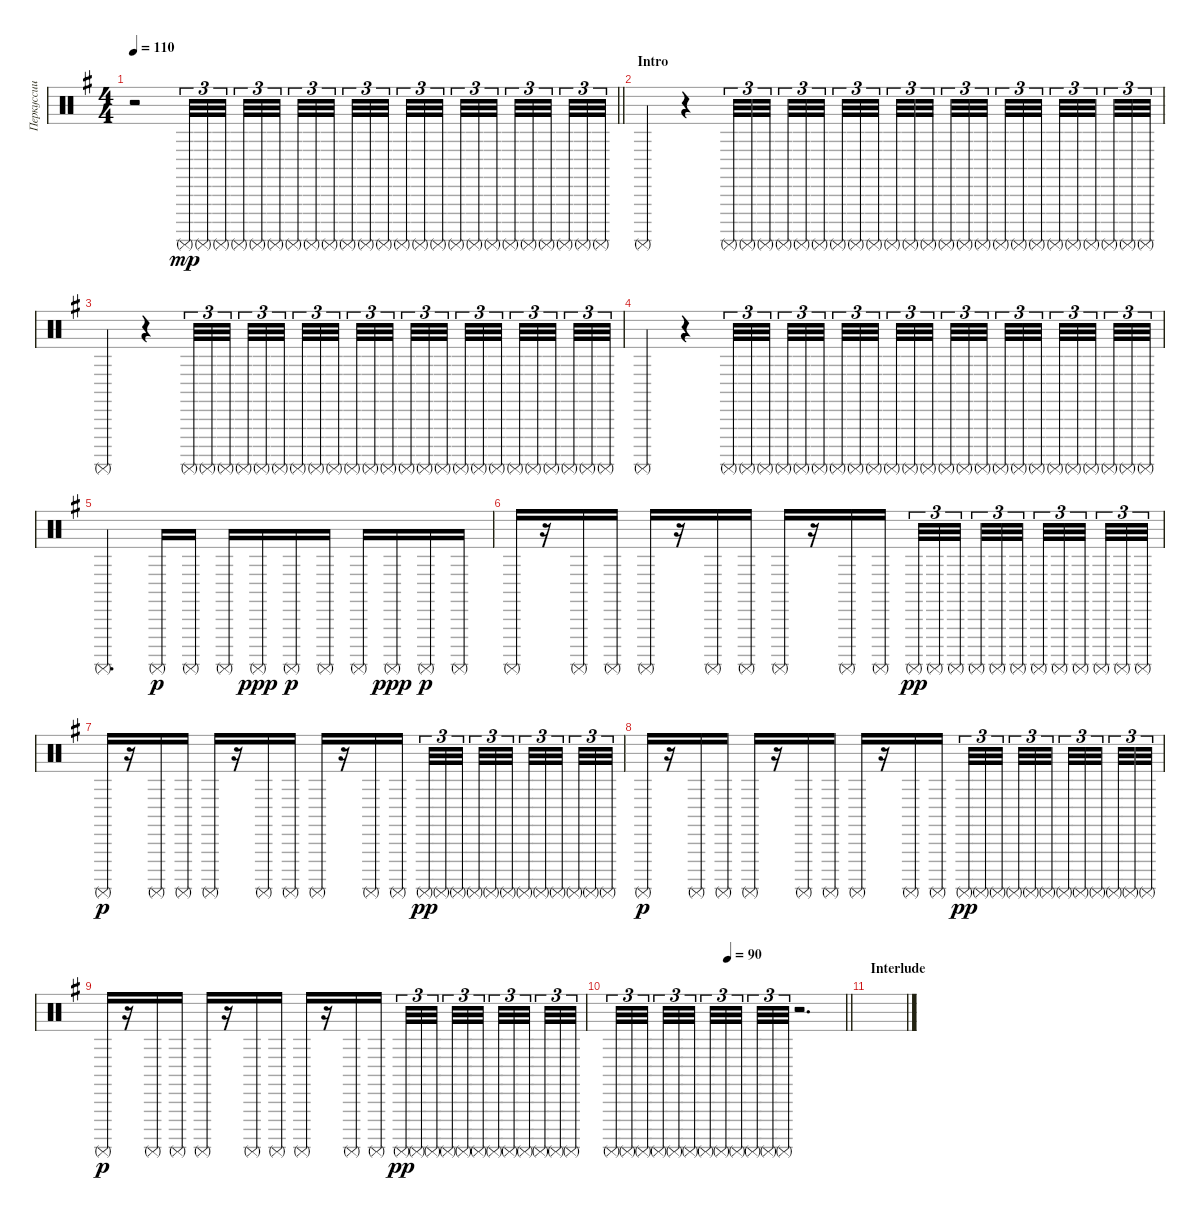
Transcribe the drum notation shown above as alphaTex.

\track ("Перкуссии" "Перкуссии") {instrument percussion}
\staff {score}
\articulation defaults
\ts (4 4)
\tempo 110
\tempo 60
\tempo 110
\clef neutral
\barLineRight lightlight
\ks eminor
r.2{dy mp volume 0} "Surdo (mute)".32{tu (3 2) volume 16} "Surdo (mute)".32{tu (3 2)} "Surdo (mute)".32{tu (3 2) beam splitsecondary} "Surdo (mute)".32{tu (3 2)} "Surdo (mute)".32{tu (3 2)} "Surdo (mute)".32{tu (3 2) beam splitsecondary} "Surdo (mute)".32{tu (3 2)} "Surdo (mute)".32{tu (3 2)} "Surdo (mute)".32{tu (3 2) beam splitsecondary} "Surdo (mute)".32{tu (3 2)} "Surdo (mute)".32{tu (3 2)} "Surdo (mute)".32{tu (3 2)} "Surdo (mute)".32{tu (3 2)} "Surdo (mute)".32{tu (3 2)} "Surdo (mute)".32{tu (3 2) beam splitsecondary} "Surdo (mute)".32{tu (3 2)} "Surdo (mute)".32{tu (3 2)} "Surdo (mute)".32{tu (3 2) beam splitsecondary} "Surdo (mute)".32{tu (3 2)} "Surdo (mute)".32{tu (3 2)} "Surdo (mute)".32{tu (3 2) beam splitsecondary} "Surdo (mute)".32{tu (3 2)} "Surdo (mute)".32{tu (3 2)} "Surdo (mute)".32{tu (3 2)} |
\section ("" "Intro")
"Surdo (mute)".4 r.4{volume 0} "Surdo (mute)".32{tu (3 2) volume 16} "Surdo (mute)".32{tu (3 2)} "Surdo (mute)".32{tu (3 2) beam splitsecondary} "Surdo (mute)".32{tu (3 2)} "Surdo (mute)".32{tu (3 2)} "Surdo (mute)".32{tu (3 2) beam splitsecondary} "Surdo (mute)".32{tu (3 2)} "Surdo (mute)".32{tu (3 2)} "Surdo (mute)".32{tu (3 2) beam splitsecondary} "Surdo (mute)".32{tu (3 2)} "Surdo (mute)".32{tu (3 2)} "Surdo (mute)".32{tu (3 2)} "Surdo (mute)".32{tu (3 2)} "Surdo (mute)".32{tu (3 2)} "Surdo (mute)".32{tu (3 2) beam splitsecondary} "Surdo (mute)".32{tu (3 2)} "Surdo (mute)".32{tu (3 2)} "Surdo (mute)".32{tu (3 2) beam splitsecondary} "Surdo (mute)".32{tu (3 2)} "Surdo (mute)".32{tu (3 2)} "Surdo (mute)".32{tu (3 2) beam splitsecondary} "Surdo (mute)".32{tu (3 2)} "Surdo (mute)".32{tu (3 2)} "Surdo (mute)".32{tu (3 2)} |
"Surdo (mute)".4 r.4{volume 0} "Surdo (mute)".32{tu (3 2) volume 16} "Surdo (mute)".32{tu (3 2)} "Surdo (mute)".32{tu (3 2) beam splitsecondary} "Surdo (mute)".32{tu (3 2)} "Surdo (mute)".32{tu (3 2)} "Surdo (mute)".32{tu (3 2) beam splitsecondary} "Surdo (mute)".32{tu (3 2)} "Surdo (mute)".32{tu (3 2)} "Surdo (mute)".32{tu (3 2) beam splitsecondary} "Surdo (mute)".32{tu (3 2)} "Surdo (mute)".32{tu (3 2)} "Surdo (mute)".32{tu (3 2)} "Surdo (mute)".32{tu (3 2)} "Surdo (mute)".32{tu (3 2)} "Surdo (mute)".32{tu (3 2) beam splitsecondary} "Surdo (mute)".32{tu (3 2)} "Surdo (mute)".32{tu (3 2)} "Surdo (mute)".32{tu (3 2) beam splitsecondary} "Surdo (mute)".32{tu (3 2)} "Surdo (mute)".32{tu (3 2)} "Surdo (mute)".32{tu (3 2) beam splitsecondary} "Surdo (mute)".32{tu (3 2)} "Surdo (mute)".32{tu (3 2)} "Surdo (mute)".32{tu (3 2)} |
"Surdo (mute)".4 r.4{volume 0} "Surdo (mute)".32{tu (3 2) volume 16} "Surdo (mute)".32{tu (3 2)} "Surdo (mute)".32{tu (3 2) beam splitsecondary} "Surdo (mute)".32{tu (3 2)} "Surdo (mute)".32{tu (3 2)} "Surdo (mute)".32{tu (3 2) beam splitsecondary} "Surdo (mute)".32{tu (3 2)} "Surdo (mute)".32{tu (3 2)} "Surdo (mute)".32{tu (3 2) beam splitsecondary} "Surdo (mute)".32{tu (3 2)} "Surdo (mute)".32{tu (3 2)} "Surdo (mute)".32{tu (3 2)} "Surdo (mute)".32{tu (3 2)} "Surdo (mute)".32{tu (3 2)} "Surdo (mute)".32{tu (3 2) beam splitsecondary} "Surdo (mute)".32{tu (3 2)} "Surdo (mute)".32{tu (3 2)} "Surdo (mute)".32{tu (3 2) beam splitsecondary} "Surdo (mute)".32{tu (3 2)} "Surdo (mute)".32{tu (3 2)} "Surdo (mute)".32{tu (3 2) beam splitsecondary} "Surdo (mute)".32{tu (3 2)} "Surdo (mute)".32{tu (3 2)} "Surdo (mute)".32{tu (3 2)} |
"Surdo (mute)".4{d} "Surdo (mute)".16{dy p} "Surdo (mute)".16 "Surdo (mute)".16 "Surdo (mute)".16{dy ppp} "Surdo (mute)".16{dy p} "Surdo (mute)".16 "Surdo (mute)".16 "Surdo (mute)".16{dy ppp} "Surdo (mute)".16{dy p} "Surdo (mute)".16 |
"Surdo (mute)".16 r.16 "Surdo (mute)".16 "Surdo (mute)".16 "Surdo (mute)".16 r.16 "Surdo (mute)".16 "Surdo (mute)".16 "Surdo (mute)".16 r.16 "Surdo (mute)".16 "Surdo (mute)".16 "Surdo (mute)".32{tu (3 2) dy pp} "Surdo (mute)".32{tu (3 2)} "Surdo (mute)".32{tu (3 2) beam splitsecondary} "Surdo (mute)".32{tu (3 2)} "Surdo (mute)".32{tu (3 2)} "Surdo (mute)".32{tu (3 2) beam splitsecondary} "Surdo (mute)".32{tu (3 2)} "Surdo (mute)".32{tu (3 2)} "Surdo (mute)".32{tu (3 2) beam splitsecondary} "Surdo (mute)".32{tu (3 2)} "Surdo (mute)".32{tu (3 2)} "Surdo (mute)".32{tu (3 2)} |
"Surdo (mute)".16{dy p} r.16 "Surdo (mute)".16 "Surdo (mute)".16 "Surdo (mute)".16 r.16 "Surdo (mute)".16 "Surdo (mute)".16 "Surdo (mute)".16 r.16 "Surdo (mute)".16 "Surdo (mute)".16 "Surdo (mute)".32{tu (3 2) dy pp} "Surdo (mute)".32{tu (3 2)} "Surdo (mute)".32{tu (3 2) beam splitsecondary} "Surdo (mute)".32{tu (3 2)} "Surdo (mute)".32{tu (3 2)} "Surdo (mute)".32{tu (3 2) beam splitsecondary} "Surdo (mute)".32{tu (3 2)} "Surdo (mute)".32{tu (3 2)} "Surdo (mute)".32{tu (3 2) beam splitsecondary} "Surdo (mute)".32{tu (3 2)} "Surdo (mute)".32{tu (3 2)} "Surdo (mute)".32{tu (3 2)} |
"Surdo (mute)".16{dy p} r.16 "Surdo (mute)".16 "Surdo (mute)".16 "Surdo (mute)".16 r.16 "Surdo (mute)".16 "Surdo (mute)".16 "Surdo (mute)".16 r.16 "Surdo (mute)".16 "Surdo (mute)".16 "Surdo (mute)".32{tu (3 2) dy pp} "Surdo (mute)".32{tu (3 2)} "Surdo (mute)".32{tu (3 2) beam splitsecondary} "Surdo (mute)".32{tu (3 2)} "Surdo (mute)".32{tu (3 2)} "Surdo (mute)".32{tu (3 2) beam splitsecondary} "Surdo (mute)".32{tu (3 2)} "Surdo (mute)".32{tu (3 2)} "Surdo (mute)".32{tu (3 2) beam splitsecondary} "Surdo (mute)".32{tu (3 2)} "Surdo (mute)".32{tu (3 2)} "Surdo (mute)".32{tu (3 2)} |
"Surdo (mute)".16{dy p} r.16 "Surdo (mute)".16 "Surdo (mute)".16 "Surdo (mute)".16 r.16 "Surdo (mute)".16 "Surdo (mute)".16 "Surdo (mute)".16 r.16 "Surdo (mute)".16 "Surdo (mute)".16 "Surdo (mute)".32{tu (3 2) dy pp} "Surdo (mute)".32{tu (3 2)} "Surdo (mute)".32{tu (3 2) beam splitsecondary} "Surdo (mute)".32{tu (3 2)} "Surdo (mute)".32{tu (3 2)} "Surdo (mute)".32{tu (3 2) beam splitsecondary} "Surdo (mute)".32{tu (3 2)} "Surdo (mute)".32{tu (3 2)} "Surdo (mute)".32{tu (3 2) beam splitsecondary} "Surdo (mute)".32{tu (3 2)} "Surdo (mute)".32{tu (3 2)} "Surdo (mute)".32{tu (3 2)} |
\tempo (90 0.5)
\barLineRight lightlight "Surdo (mute)".32{tu (3 2)} "Surdo (mute)".32{tu (3 2)} "Surdo (mute)".32{tu (3 2) beam splitsecondary} "Surdo (mute)".32{tu (3 2)} "Surdo (mute)".32{tu (3 2)} "Surdo (mute)".32{tu (3 2) beam splitsecondary} "Surdo (mute)".32{tu (3 2)} "Surdo (mute)".32{tu (3 2)} "Surdo (mute)".32{tu (3 2) beam splitsecondary} "Surdo (mute)".32{tu (3 2)} "Surdo (mute)".32{tu (3 2)} "Surdo (mute)".32{tu (3 2)}
r.2{d} |
\section ("" "Interlude")
